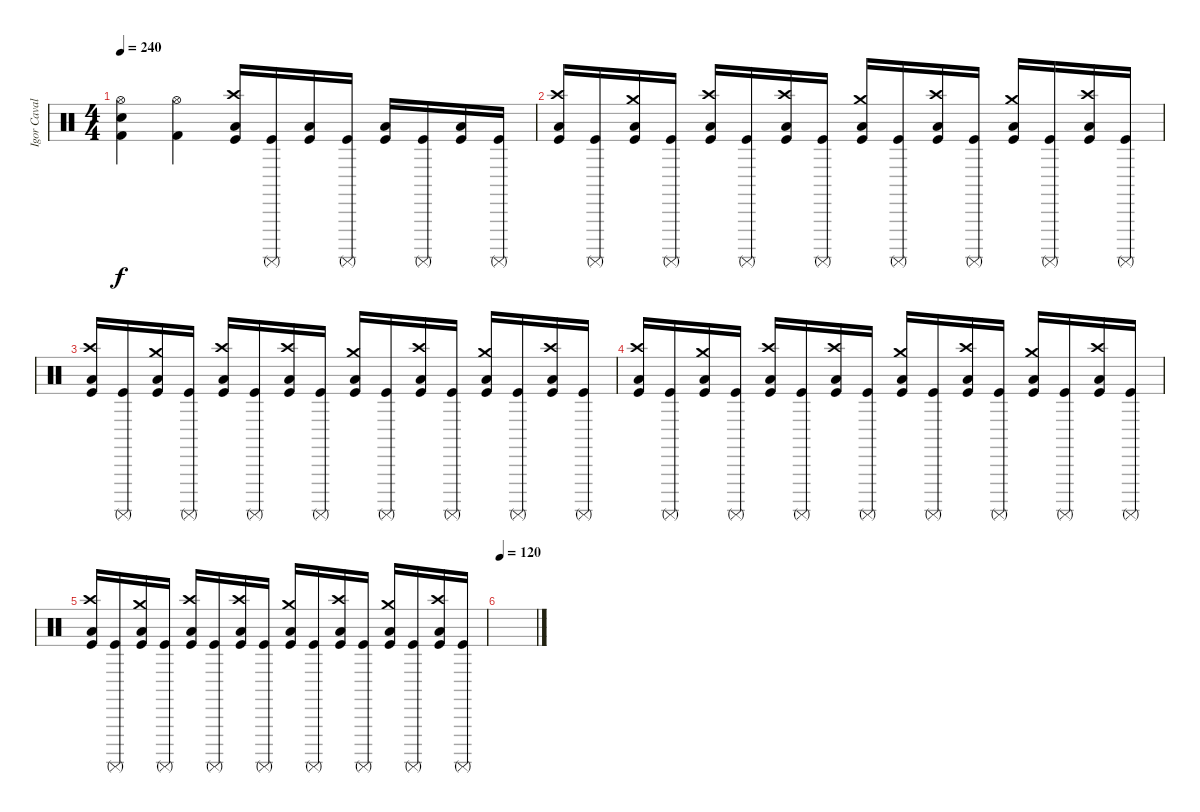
\track ("Igor Cavalera" "Igor Caval") {instrument percussion}
\staff {score}
\articulation defaults
\ts (4 4)
\tempo 240
\clef neutral
\ks c
("Hi-Hat (open)" "Electric Snare (hit)" "Kick (hit) 2").4{dy f} ("Hi-Hat (open)" "Kick (hit) 2").4 ("Crash high (hit)" "Low Floor Tom (hit)" "Kick (hit)").16 ("Surdo (mute)" "Kick (hit)").16 ("Low Floor Tom (hit)" "Kick (hit)").16 ("Surdo (mute)" "Kick (hit)").16 ("Low Floor Tom (hit)" "Kick (hit)").16 ("Surdo (mute)" "Kick (hit)").16 ("Low Floor Tom (hit)" "Kick (hit)").16 ("Surdo (mute)" "Kick (hit)").16 |
("Crash high (hit)" "Low Floor Tom (hit)" "Kick (hit)").16 ("Surdo (mute)" "Kick (hit)").16 ("Crash medium (hit)" "Low Floor Tom (hit)" "Kick (hit)").16 ("Surdo (mute)" "Kick (hit)").16 ("Crash high (hit)" "Low Floor Tom (hit)" "Kick (hit)").16 ("Surdo (mute)" "Kick (hit)").16 ("Crash high (hit)" "Low Floor Tom (hit)" "Kick (hit)").16 ("Surdo (mute)" "Kick (hit)").16 ("Crash medium (hit)" "Low Floor Tom (hit)" "Kick (hit)").16 ("Surdo (mute)" "Kick (hit)").16 ("Crash high (hit)" "Low Floor Tom (hit)" "Kick (hit)").16 ("Surdo (mute)" "Kick (hit)").16 ("Crash medium (hit)" "Low Floor Tom (hit)" "Kick (hit)").16 ("Surdo (mute)" "Kick (hit)").16 ("Crash high (hit)" "Low Floor Tom (hit)" "Kick (hit)").16 ("Surdo (mute)" "Kick (hit)").16 |
("Crash high (hit)" "Low Floor Tom (hit)" "Kick (hit)").16 ("Surdo (mute)" "Kick (hit)").16 ("Crash medium (hit)" "Low Floor Tom (hit)" "Kick (hit)").16 ("Surdo (mute)" "Kick (hit)").16 ("Crash high (hit)" "Low Floor Tom (hit)" "Kick (hit)").16 ("Surdo (mute)" "Kick (hit)").16 ("Crash high (hit)" "Low Floor Tom (hit)" "Kick (hit)").16 ("Surdo (mute)" "Kick (hit)").16 ("Crash medium (hit)" "Low Floor Tom (hit)" "Kick (hit)").16 ("Surdo (mute)" "Kick (hit)").16 ("Crash high (hit)" "Low Floor Tom (hit)" "Kick (hit)").16 ("Surdo (mute)" "Kick (hit)").16 ("Crash medium (hit)" "Low Floor Tom (hit)" "Kick (hit)").16 ("Surdo (mute)" "Kick (hit)").16 ("Crash high (hit)" "Low Floor Tom (hit)" "Kick (hit)").16 ("Surdo (mute)" "Kick (hit)").16 |
("Crash high (hit)" "Low Floor Tom (hit)" "Kick (hit)").16 ("Surdo (mute)" "Kick (hit)").16 ("Crash medium (hit)" "Low Floor Tom (hit)" "Kick (hit)").16 ("Surdo (mute)" "Kick (hit)").16 ("Crash high (hit)" "Low Floor Tom (hit)" "Kick (hit)").16 ("Surdo (mute)" "Kick (hit)").16 ("Crash high (hit)" "Low Floor Tom (hit)" "Kick (hit)").16 ("Surdo (mute)" "Kick (hit)").16 ("Crash medium (hit)" "Low Floor Tom (hit)" "Kick (hit)").16 ("Surdo (mute)" "Kick (hit)").16 ("Crash high (hit)" "Low Floor Tom (hit)" "Kick (hit)").16 ("Surdo (mute)" "Kick (hit)").16 ("Crash medium (hit)" "Low Floor Tom (hit)" "Kick (hit)").16 ("Surdo (mute)" "Kick (hit)").16 ("Crash high (hit)" "Low Floor Tom (hit)" "Kick (hit)").16 ("Surdo (mute)" "Kick (hit)").16 |
("Crash high (hit)" "Low Floor Tom (hit)" "Kick (hit)").16 ("Surdo (mute)" "Kick (hit)").16 ("Crash medium (hit)" "Low Floor Tom (hit)" "Kick (hit)").16 ("Surdo (mute)" "Kick (hit)").16 ("Crash high (hit)" "Low Floor Tom (hit)" "Kick (hit)").16 ("Surdo (mute)" "Kick (hit)").16 ("Crash high (hit)" "Low Floor Tom (hit)" "Kick (hit)").16 ("Surdo (mute)" "Kick (hit)").16 ("Crash medium (hit)" "Low Floor Tom (hit)" "Kick (hit)").16 ("Surdo (mute)" "Kick (hit)").16 ("Crash high (hit)" "Low Floor Tom (hit)" "Kick (hit)").16 ("Surdo (mute)" "Kick (hit)").16 ("Crash medium (hit)" "Low Floor Tom (hit)" "Kick (hit)").16 ("Surdo (mute)" "Kick (hit)").16 ("Crash high (hit)" "Low Floor Tom (hit)" "Kick (hit)").16 ("Surdo (mute)" "Kick (hit)").16 |
\tempo 120
